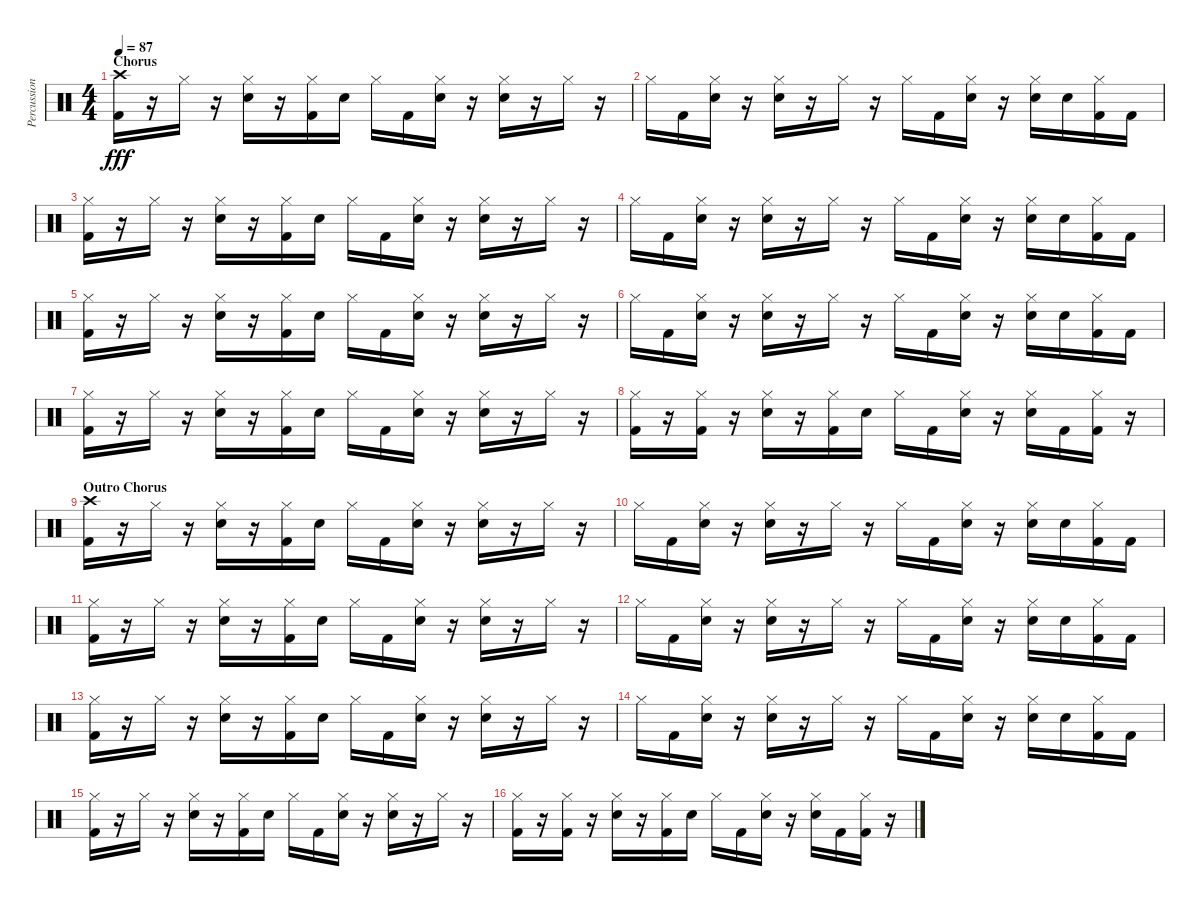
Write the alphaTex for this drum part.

\track ("Percussion" "Percussion") {instrument percussion}
\staff {score}
\articulation defaults
\ts (4 4)
\section ("" "Chorus")
\tempo 87
\clef neutral
\ks c
("Crash high (hit)" "Kick (hit) 2").16{dy fff} r.16 "Hi-Hat (closed)".16 r.16 ("Hi-Hat (closed)" "Electric Snare (hit)").16 r.16 ("Hi-Hat (closed)" "Kick (hit) 2").16 "Electric Snare (hit)".16 "Hi-Hat (closed)".16 "Kick (hit) 2".16 ("Hi-Hat (closed)" "Electric Snare (hit)").16 r.16 ("Hi-Hat (closed)" "Electric Snare (hit)").16 r.16 "Hi-Hat (closed)".16 r.16 |
"Hi-Hat (closed)".16 "Kick (hit) 2".16 ("Hi-Hat (closed)" "Electric Snare (hit)").16 r.16 ("Hi-Hat (closed)" "Electric Snare (hit)").16 r.16 "Hi-Hat (closed)".16 r.16 "Hi-Hat (closed)".16 "Kick (hit) 2".16 ("Hi-Hat (closed)" "Electric Snare (hit)").16 r.16 ("Hi-Hat (closed)" "Electric Snare (hit)").16 "Electric Snare (hit)".16 ("Hi-Hat (closed)" "Kick (hit) 2").16 "Kick (hit) 2".16 |
("Hi-Hat (closed)" "Kick (hit) 2").16 r.16 "Hi-Hat (closed)".16 r.16 ("Hi-Hat (closed)" "Electric Snare (hit)").16 r.16 ("Hi-Hat (closed)" "Kick (hit) 2").16 "Electric Snare (hit)".16 "Hi-Hat (closed)".16 "Kick (hit) 2".16 ("Hi-Hat (closed)" "Electric Snare (hit)").16 r.16 ("Hi-Hat (closed)" "Electric Snare (hit)").16 r.16 "Hi-Hat (closed)".16 r.16 |
"Hi-Hat (closed)".16 "Kick (hit) 2".16 ("Hi-Hat (closed)" "Electric Snare (hit)").16 r.16 ("Hi-Hat (closed)" "Electric Snare (hit)").16 r.16 "Hi-Hat (closed)".16 r.16 "Hi-Hat (closed)".16 "Kick (hit) 2".16 ("Hi-Hat (closed)" "Electric Snare (hit)").16 r.16 ("Hi-Hat (closed)" "Electric Snare (hit)").16 "Electric Snare (hit)".16 ("Hi-Hat (closed)" "Kick (hit) 2").16 "Kick (hit) 2".16 |
("Hi-Hat (closed)" "Kick (hit) 2").16 r.16 "Hi-Hat (closed)".16 r.16 ("Hi-Hat (closed)" "Electric Snare (hit)").16 r.16 ("Hi-Hat (closed)" "Kick (hit) 2").16 "Electric Snare (hit)".16 "Hi-Hat (closed)".16 "Kick (hit) 2".16 ("Hi-Hat (closed)" "Electric Snare (hit)").16 r.16 ("Hi-Hat (closed)" "Electric Snare (hit)").16 r.16 "Hi-Hat (closed)".16 r.16 |
"Hi-Hat (closed)".16 "Kick (hit) 2".16 ("Hi-Hat (closed)" "Electric Snare (hit)").16 r.16 ("Hi-Hat (closed)" "Electric Snare (hit)").16 r.16 "Hi-Hat (closed)".16 r.16 "Hi-Hat (closed)".16 "Kick (hit) 2".16 ("Hi-Hat (closed)" "Electric Snare (hit)").16 r.16 ("Hi-Hat (closed)" "Electric Snare (hit)").16 "Electric Snare (hit)".16 ("Hi-Hat (closed)" "Kick (hit) 2").16 "Kick (hit) 2".16 |
("Hi-Hat (closed)" "Kick (hit) 2").16 r.16 "Hi-Hat (closed)".16 r.16 ("Hi-Hat (closed)" "Electric Snare (hit)").16 r.16 ("Hi-Hat (closed)" "Kick (hit) 2").16 "Electric Snare (hit)".16 "Hi-Hat (closed)".16 "Kick (hit) 2".16 ("Hi-Hat (closed)" "Electric Snare (hit)").16 r.16 ("Hi-Hat (closed)" "Electric Snare (hit)").16 r.16 "Hi-Hat (closed)".16 r.16 |
("Hi-Hat (closed)" "Kick (hit) 2").16 r.16 ("Hi-Hat (closed)" "Kick (hit) 2").16 r.16 ("Hi-Hat (closed)" "Electric Snare (hit)").16 r.16 ("Hi-Hat (closed)" "Kick (hit) 2").16 "Electric Snare (hit)".16 "Hi-Hat (closed)".16 "Kick (hit) 2".16 ("Hi-Hat (closed)" "Electric Snare (hit)").16 r.16 ("Hi-Hat (closed)" "Electric Snare (hit)").16 "Kick (hit) 2".16 ("Hi-Hat (closed)" "Kick (hit) 2").16 r.16 |
\section ("" "Outro Chorus")
("Crash high (hit)" "Kick (hit) 2").16 r.16 "Hi-Hat (closed)".16 r.16 ("Hi-Hat (closed)" "Electric Snare (hit)").16 r.16 ("Hi-Hat (closed)" "Kick (hit) 2").16 "Electric Snare (hit)".16 "Hi-Hat (closed)".16 "Kick (hit) 2".16 ("Hi-Hat (closed)" "Electric Snare (hit)").16 r.16 ("Hi-Hat (closed)" "Electric Snare (hit)").16 r.16 "Hi-Hat (closed)".16 r.16 |
"Hi-Hat (closed)".16 "Kick (hit) 2".16 ("Hi-Hat (closed)" "Electric Snare (hit)").16 r.16 ("Hi-Hat (closed)" "Electric Snare (hit)").16 r.16 "Hi-Hat (closed)".16 r.16 "Hi-Hat (closed)".16 "Kick (hit) 2".16 ("Hi-Hat (closed)" "Electric Snare (hit)").16 r.16 ("Hi-Hat (closed)" "Electric Snare (hit)").16 "Electric Snare (hit)".16 ("Hi-Hat (closed)" "Kick (hit) 2").16 "Kick (hit) 2".16 |
("Hi-Hat (closed)" "Kick (hit) 2").16 r.16 "Hi-Hat (closed)".16 r.16 ("Hi-Hat (closed)" "Electric Snare (hit)").16 r.16 ("Hi-Hat (closed)" "Kick (hit) 2").16 "Electric Snare (hit)".16 "Hi-Hat (closed)".16 "Kick (hit) 2".16 ("Hi-Hat (closed)" "Electric Snare (hit)").16 r.16 ("Hi-Hat (closed)" "Electric Snare (hit)").16 r.16 "Hi-Hat (closed)".16 r.16 |
"Hi-Hat (closed)".16 "Kick (hit) 2".16 ("Hi-Hat (closed)" "Electric Snare (hit)").16 r.16 ("Hi-Hat (closed)" "Electric Snare (hit)").16 r.16 "Hi-Hat (closed)".16 r.16 "Hi-Hat (closed)".16 "Kick (hit) 2".16 ("Hi-Hat (closed)" "Electric Snare (hit)").16 r.16 ("Hi-Hat (closed)" "Electric Snare (hit)").16 "Electric Snare (hit)".16 ("Hi-Hat (closed)" "Kick (hit) 2").16 "Kick (hit) 2".16 |
("Hi-Hat (closed)" "Kick (hit) 2").16 r.16 "Hi-Hat (closed)".16 r.16 ("Hi-Hat (closed)" "Electric Snare (hit)").16 r.16 ("Hi-Hat (closed)" "Kick (hit) 2").16 "Electric Snare (hit)".16 "Hi-Hat (closed)".16 "Kick (hit) 2".16 ("Hi-Hat (closed)" "Electric Snare (hit)").16 r.16 ("Hi-Hat (closed)" "Electric Snare (hit)").16 r.16 "Hi-Hat (closed)".16 r.16 |
"Hi-Hat (closed)".16 "Kick (hit) 2".16 ("Hi-Hat (closed)" "Electric Snare (hit)").16 r.16 ("Hi-Hat (closed)" "Electric Snare (hit)").16 r.16 "Hi-Hat (closed)".16 r.16 "Hi-Hat (closed)".16 "Kick (hit) 2".16 ("Hi-Hat (closed)" "Electric Snare (hit)").16 r.16 ("Hi-Hat (closed)" "Electric Snare (hit)").16 "Electric Snare (hit)".16 ("Hi-Hat (closed)" "Kick (hit) 2").16 "Kick (hit) 2".16 |
("Hi-Hat (closed)" "Kick (hit) 2").16 r.16 "Hi-Hat (closed)".16 r.16 ("Hi-Hat (closed)" "Electric Snare (hit)").16 r.16 ("Hi-Hat (closed)" "Kick (hit) 2").16 "Electric Snare (hit)".16 "Hi-Hat (closed)".16 "Kick (hit) 2".16 ("Hi-Hat (closed)" "Electric Snare (hit)").16 r.16 ("Hi-Hat (closed)" "Electric Snare (hit)").16 r.16 "Hi-Hat (closed)".16 r.16 |
("Hi-Hat (closed)" "Kick (hit) 2").16 r.16 ("Hi-Hat (closed)" "Kick (hit) 2").16 r.16 ("Hi-Hat (closed)" "Electric Snare (hit)").16 r.16 ("Hi-Hat (closed)" "Kick (hit) 2").16 "Electric Snare (hit)".16 "Hi-Hat (closed)".16 "Kick (hit) 2".16 ("Hi-Hat (closed)" "Electric Snare (hit)").16 r.16 ("Hi-Hat (closed)" "Electric Snare (hit)").16 "Kick (hit) 2".16 ("Hi-Hat (closed)" "Kick (hit) 2").16 r.16
